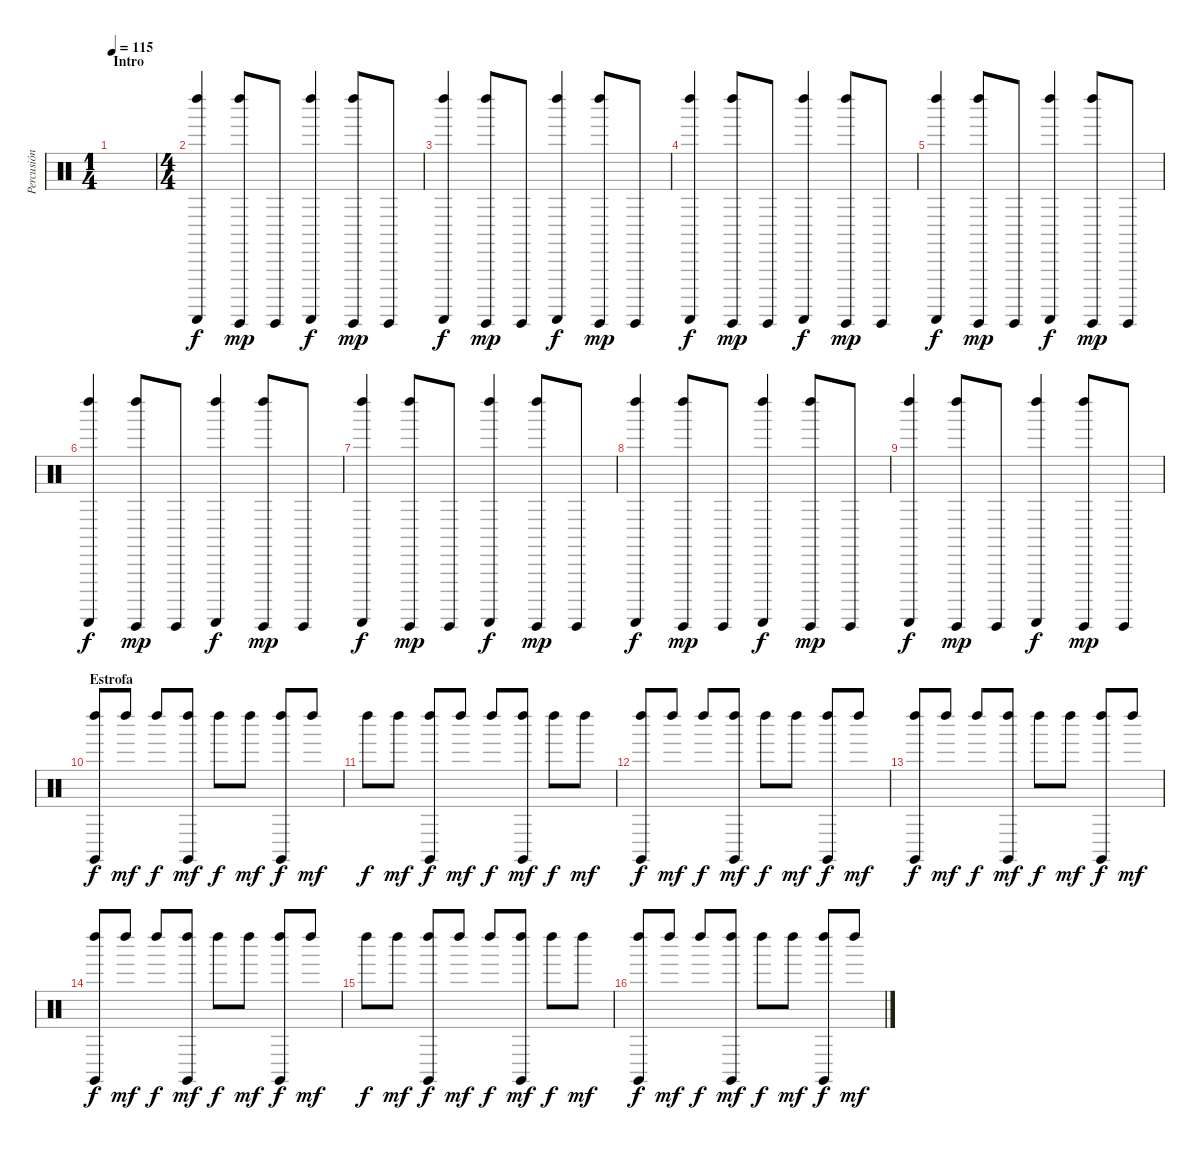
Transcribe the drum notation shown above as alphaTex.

\track ("Percusión" "Percusión") {instrument percussion}
\staff {score}
\articulation defaults
\ts (1 4)
\section ("" "Intro")
\tempo 115
\clef neutral
\ks c
|
\ts (4 4)
("Guiro (scrap-return)" "Left Maraca (hit)").4 ("Guiro (hit)" "Left Maraca (hit)").8{dy mp} "Guiro (hit)".8 ("Guiro (scrap-return)" "Left Maraca (hit)").4{dy f} ("Guiro (hit)" "Left Maraca (hit)").8{dy mp} "Guiro (hit)".8 |
("Guiro (scrap-return)" "Left Maraca (hit)").4{dy f} ("Guiro (hit)" "Left Maraca (hit)").8{dy mp} "Guiro (hit)".8 ("Guiro (scrap-return)" "Left Maraca (hit)").4{dy f} ("Guiro (hit)" "Left Maraca (hit)").8{dy mp} "Guiro (hit)".8 |
("Guiro (scrap-return)" "Left Maraca (hit)").4{dy f} ("Guiro (hit)" "Left Maraca (hit)").8{dy mp} "Guiro (hit)".8 ("Guiro (scrap-return)" "Left Maraca (hit)").4{dy f} ("Guiro (hit)" "Left Maraca (hit)").8{dy mp} "Guiro (hit)".8 |
("Guiro (scrap-return)" "Left Maraca (hit)").4{dy f} ("Guiro (hit)" "Left Maraca (hit)").8{dy mp} "Guiro (hit)".8 ("Guiro (scrap-return)" "Left Maraca (hit)").4{dy f} ("Guiro (hit)" "Left Maraca (hit)").8{dy mp} "Guiro (hit)".8 |
("Guiro (scrap-return)" "Left Maraca (hit)").4{dy f} ("Guiro (hit)" "Left Maraca (hit)").8{dy mp} "Guiro (hit)".8 ("Guiro (scrap-return)" "Left Maraca (hit)").4{dy f} ("Guiro (hit)" "Left Maraca (hit)").8{dy mp} "Guiro (hit)".8 |
("Guiro (scrap-return)" "Left Maraca (hit)").4{dy f} ("Guiro (hit)" "Left Maraca (hit)").8{dy mp} "Guiro (hit)".8 ("Guiro (scrap-return)" "Left Maraca (hit)").4{dy f} ("Guiro (hit)" "Left Maraca (hit)").8{dy mp} "Guiro (hit)".8 |
("Guiro (scrap-return)" "Left Maraca (hit)").4{dy f} ("Guiro (hit)" "Left Maraca (hit)").8{dy mp} "Guiro (hit)".8 ("Guiro (scrap-return)" "Left Maraca (hit)").4{dy f} ("Guiro (hit)" "Left Maraca (hit)").8{dy mp} "Guiro (hit)".8 |
("Guiro (scrap-return)" "Left Maraca (hit)").4{dy f} ("Guiro (hit)" "Left Maraca (hit)").8{dy mp} "Guiro (hit)".8 ("Guiro (scrap-return)" "Left Maraca (hit)").4{dy f} ("Guiro (hit)" "Left Maraca (hit)").8{dy mp} "Guiro (hit)".8 |
\section ("" "Estrofa")
("Claves (hit)" "Left Maraca (hit)").8{dy f} "Left Maraca (hit)".8{dy mf} "Left Maraca (hit)".8{dy f} ("Claves (hit)" "Left Maraca (hit)").8{dy mf} "Left Maraca (hit)".8{dy f} "Left Maraca (hit)".8{dy mf} ("Claves (hit)" "Left Maraca (hit)").8{dy f} "Left Maraca (hit)".8{dy mf} |
"Left Maraca (hit)".8{dy f} "Left Maraca (hit)".8{dy mf} ("Claves (hit)" "Left Maraca (hit)").8{dy f} "Left Maraca (hit)".8{dy mf} "Left Maraca (hit)".8{dy f} ("Claves (hit)" "Left Maraca (hit)").8{dy mf} "Left Maraca (hit)".8{dy f} "Left Maraca (hit)".8{dy mf} |
("Claves (hit)" "Left Maraca (hit)").8{dy f} "Left Maraca (hit)".8{dy mf} "Left Maraca (hit)".8{dy f} ("Claves (hit)" "Left Maraca (hit)").8{dy mf} "Left Maraca (hit)".8{dy f} "Left Maraca (hit)".8{dy mf} ("Claves (hit)" "Left Maraca (hit)").8{dy f} "Left Maraca (hit)".8{dy mf} |
("Claves (hit)" "Left Maraca (hit)").8{dy f} "Left Maraca (hit)".8{dy mf} "Left Maraca (hit)".8{dy f} ("Claves (hit)" "Left Maraca (hit)").8{dy mf} "Left Maraca (hit)".8{dy f} "Left Maraca (hit)".8{dy mf} ("Claves (hit)" "Left Maraca (hit)").8{dy f} "Left Maraca (hit)".8{dy mf} |
("Claves (hit)" "Left Maraca (hit)").8{dy f} "Left Maraca (hit)".8{dy mf} "Left Maraca (hit)".8{dy f} ("Claves (hit)" "Left Maraca (hit)").8{dy mf} "Left Maraca (hit)".8{dy f} "Left Maraca (hit)".8{dy mf} ("Claves (hit)" "Left Maraca (hit)").8{dy f} "Left Maraca (hit)".8{dy mf} |
"Left Maraca (hit)".8{dy f} "Left Maraca (hit)".8{dy mf} ("Claves (hit)" "Left Maraca (hit)").8{dy f} "Left Maraca (hit)".8{dy mf} "Left Maraca (hit)".8{dy f} ("Claves (hit)" "Left Maraca (hit)").8{dy mf} "Left Maraca (hit)".8{dy f} "Left Maraca (hit)".8{dy mf} |
("Claves (hit)" "Left Maraca (hit)").8{dy f} "Left Maraca (hit)".8{dy mf} "Left Maraca (hit)".8{dy f} ("Claves (hit)" "Left Maraca (hit)").8{dy mf} "Left Maraca (hit)".8{dy f} "Left Maraca (hit)".8{dy mf} ("Claves (hit)" "Left Maraca (hit)").8{dy f} "Left Maraca (hit)".8{dy mf}
